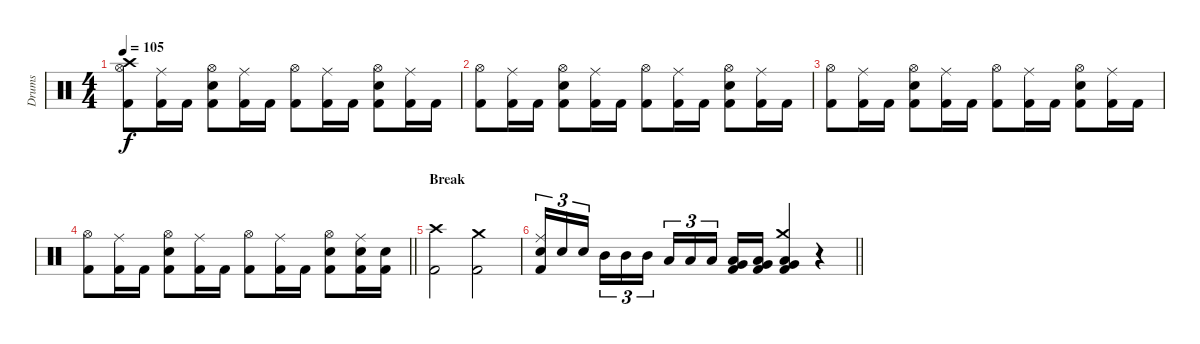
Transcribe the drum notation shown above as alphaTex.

\track ("Drums" "Drums") {instrument percussion}
\staff {score}
\articulation defaults
\ts (4 4)
\tempo 105
\clef neutral
\ks c
("Crash high (hit)" "Hi-Hat (open)" "Kick (hit) 2").8{dy f} ("Ride (middle)" "Kick (hit) 2").16 "Kick (hit) 2".16 ("Hi-Hat (open)" "Snare (hit) 2" "Kick (hit) 2").8 ("Ride (middle)" "Kick (hit) 2").16 "Kick (hit) 2".16 ("Hi-Hat (open)" "Kick (hit) 2").8 ("Ride (middle)" "Kick (hit) 2").16 "Kick (hit) 2".16 ("Hi-Hat (open)" "Snare (hit) 2" "Kick (hit) 2").8 ("Ride (middle)" "Kick (hit) 2").16 "Kick (hit) 2".16 |
("Hi-Hat (open)" "Kick (hit) 2").8 ("Ride (middle)" "Kick (hit) 2").16 "Kick (hit) 2".16 ("Hi-Hat (open)" "Snare (hit) 2" "Kick (hit) 2").8 ("Ride (middle)" "Kick (hit) 2").16 "Kick (hit) 2".16 ("Hi-Hat (open)" "Kick (hit) 2").8 ("Ride (middle)" "Kick (hit) 2").16 "Kick (hit) 2".16 ("Hi-Hat (open)" "Snare (hit) 2" "Kick (hit) 2").8 ("Ride (middle)" "Kick (hit) 2").16 "Kick (hit) 2".16 |
("Hi-Hat (open)" "Kick (hit) 2").8 ("Ride (middle)" "Kick (hit) 2").16 "Kick (hit) 2".16 ("Hi-Hat (open)" "Snare (hit) 2" "Kick (hit) 2").8 ("Ride (middle)" "Kick (hit) 2").16 "Kick (hit) 2".16 ("Hi-Hat (open)" "Kick (hit) 2").8 ("Ride (middle)" "Kick (hit) 2").16 "Kick (hit) 2".16 ("Hi-Hat (open)" "Snare (hit) 2" "Kick (hit) 2").8 ("Ride (middle)" "Kick (hit) 2").16 "Kick (hit) 2".16 |
\barLineRight lightlight
("Hi-Hat (open)" "Kick (hit) 2").8 ("Ride (middle)" "Kick (hit) 2").16 "Kick (hit) 2".16 ("Hi-Hat (open)" "Snare (hit) 2" "Kick (hit) 2").8 ("Ride (middle)" "Kick (hit) 2").16 "Kick (hit) 2".16 ("Hi-Hat (open)" "Kick (hit) 2").8 ("Ride (middle)" "Kick (hit) 2").16 "Kick (hit) 2".16 ("Hi-Hat (open)" "Snare (hit) 2" "Kick (hit) 2").8 ("Ride (middle)" "Snare (hit) 2" "Kick (hit) 2").16 ("Snare (hit) 2" "Kick (hit) 2").16 |
\section ("" "Break")
("Crash high (hit)" "Kick (hit) 2").2 ("Crash medium (hit)" "Kick (hit) 2").2 |
\barLineRight lightlight
("Ride (middle)" "Snare (hit) 2" "Kick (hit) 2").16{tu (3 2)} "Snare (hit) 2".16{tu (3 2)} "Snare (hit) 2".16{tu (3 2) beam splitsecondary} "Mid Tom (hit)".16{tu (3 2)} "Mid Tom (hit)".16{tu (3 2)} "Mid Tom (hit)".16{tu (3 2)} "Low Tom (hit)".16{tu (3 2)} "Low Tom (hit)".16{tu (3 2)} "Low Tom (hit)".16{tu (3 2) beam splitsecondary} ("Very Low Tom (hit)" "Low Floor Tom (hit)" "Kick (hit) 2").16 ("Very Low Tom (hit)" "Low Floor Tom (hit)" "Kick (hit) 2").16 ("Crash medium (hit)" "Very Low Tom (hit)" "Low Floor Tom (hit)" "Kick (hit) 2").4 r.4
